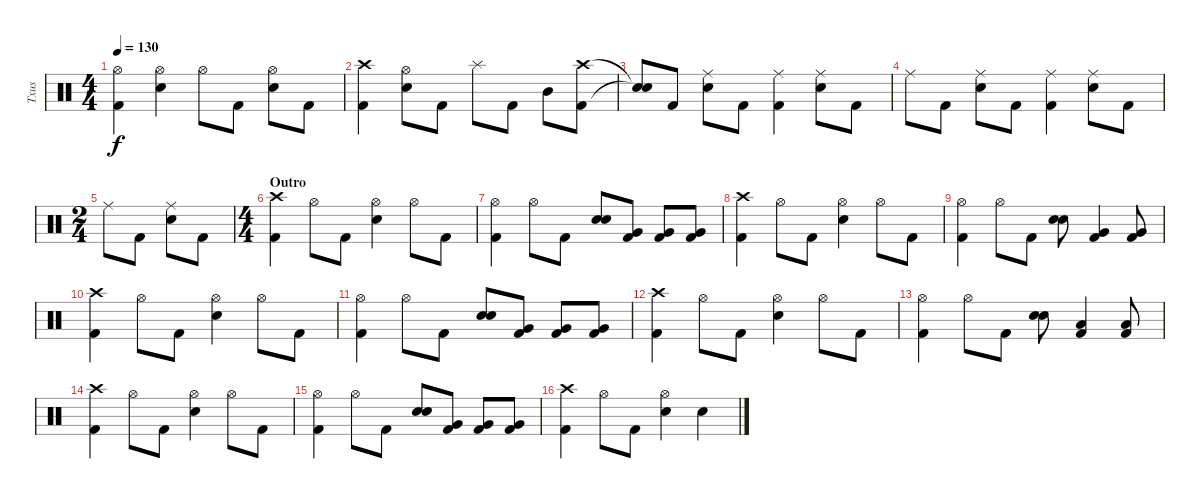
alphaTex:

\track ("Txus" "Txus") {instrument percussion}
\staff {score}
\articulation defaults
\ts (4 4)
\tempo 130
\clef neutral
\ks c
("Kick (hit) 2" "Hi-Hat (open)").4{dy f} ("Electric Snare (hit)" "Hi-Hat (open)").4 "Hi-Hat (open)".8 "Kick (hit) 2".8 ("Electric Snare (hit)" "Hi-Hat (open)").8 "Kick (hit) 2".8 |
("Kick (hit) 2" "Crash high (hit)").4 ("Electric Snare (hit)" "Hi-Hat (open)").8 "Kick (hit) 2".8 "Splash (hit)".8 "Kick (hit) 2".8 "Mid Tom (hit)".8 ("Kick (hit) 2" "Crash high (hit)").8 |
("Snare (hit)"{t} "Snare (hit)"{t}).8 "Kick (hit) 2".8 ("Electric Snare (hit)" "Ride (middle)").8 "Kick (hit) 2".8 ("Kick (hit) 2" "Ride (middle)").4 ("Electric Snare (hit)" "Ride (middle)").8 "Kick (hit) 2".8 |
"Ride (middle)".8 "Kick (hit) 2".8 ("Electric Snare (hit)" "Ride (middle)").8 "Kick (hit) 2".8 ("Kick (hit) 2" "Ride (middle)").4 ("Electric Snare (hit)" "Ride (middle)").8 "Kick (hit) 2".8 |
\ts (2 4)
"Ride (middle)".8 "Kick (hit) 2".8 ("Electric Snare (hit)" "Ride (middle)").8 "Kick (hit) 2".8 |
\ts (4 4)
\section ("" "Outro")
("Kick (hit) 2" "Crash high (hit)").4 "Hi-Hat (open)".8 "Kick (hit) 2".8 ("Electric Snare (hit)" "Hi-Hat (open)").4 "Hi-Hat (open)".8 "Kick (hit) 2".8 |
("Kick (hit) 2" "Hi-Hat (open)").4 "Hi-Hat (open)".8 "Kick (hit) 2".8 ("Electric Snare (hit)" "Snare (hit) 2").8 ("Kick (hit) 2" "Very Low Tom (hit)").8 ("Kick (hit) 2" "Very Low Tom (hit)").8 ("Kick (hit) 2" "Very Low Tom (hit)").8 |
("Kick (hit) 2" "Crash high (hit)").4 "Hi-Hat (open)".8 "Kick (hit) 2".8 ("Electric Snare (hit)" "Hi-Hat (open)").4 "Hi-Hat (open)".8 "Kick (hit) 2".8 |
("Kick (hit) 2" "Hi-Hat (open)").4 "Hi-Hat (open)".8 "Kick (hit) 2".8 ("Electric Snare (hit)" "Snare (hit) 2").8 ("Kick (hit) 2" "Very Low Tom (hit)").4 ("Kick (hit) 2" "Very Low Tom (hit)").8 |
("Kick (hit) 2" "Crash high (hit)").4 "Hi-Hat (open)".8 "Kick (hit) 2".8 ("Electric Snare (hit)" "Hi-Hat (open)").4 "Hi-Hat (open)".8 "Kick (hit) 2".8 |
("Kick (hit) 2" "Hi-Hat (open)").4 "Hi-Hat (open)".8 "Kick (hit) 2".8 ("Electric Snare (hit)" "Snare (hit) 2").8 ("Kick (hit) 2" "Very Low Tom (hit)").8 ("Kick (hit) 2" "Very Low Tom (hit)").8 ("Kick (hit) 2" "Very Low Tom (hit)").8 |
("Kick (hit) 2" "Crash high (hit)").4 "Hi-Hat (open)".8 "Kick (hit) 2".8 ("Electric Snare (hit)" "Hi-Hat (open)").4 "Hi-Hat (open)".8 "Kick (hit) 2".8 |
("Kick (hit) 2" "Hi-Hat (open)").4 "Hi-Hat (open)".8 "Kick (hit) 2".8 ("Electric Snare (hit)" "Snare (hit) 2").8 ("Kick (hit) 2" "Low Tom (hit)").4 ("Kick (hit) 2" "Low Tom (hit)").8 |
("Kick (hit) 2" "Crash high (hit)").4 "Hi-Hat (open)".8 "Kick (hit) 2".8 ("Electric Snare (hit)" "Hi-Hat (open)").4 "Hi-Hat (open)".8 "Kick (hit) 2".8 |
("Kick (hit) 2" "Hi-Hat (open)").4 "Hi-Hat (open)".8 "Kick (hit) 2".8 ("Electric Snare (hit)" "Snare (hit) 2").8 ("Kick (hit) 2" "Very Low Tom (hit)").8 ("Kick (hit) 2" "Very Low Tom (hit)").8 ("Kick (hit) 2" "Very Low Tom (hit)").8 |
("Kick (hit) 2" "Crash high (hit)").4 "Hi-Hat (open)".8 "Kick (hit) 2".8 ("Electric Snare (hit)" "Hi-Hat (open)").4 "Electric Snare (hit)".4
